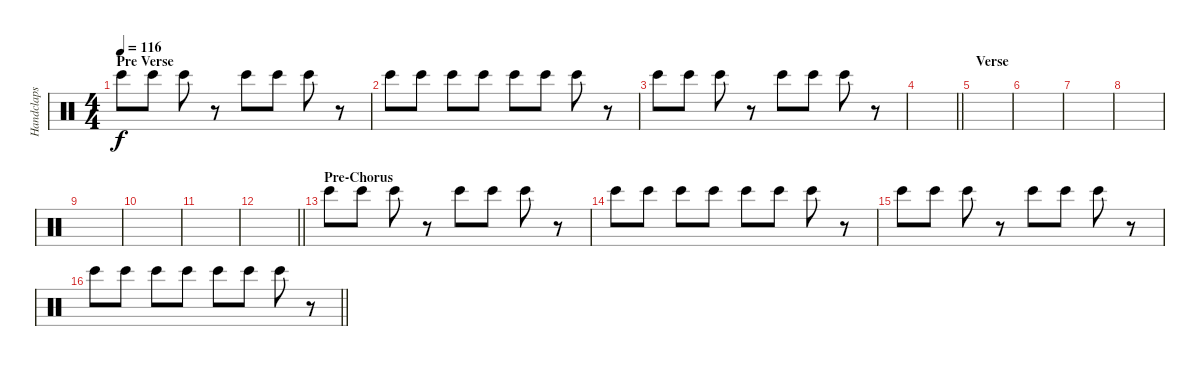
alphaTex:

\track ("Handclaps" "Handclaps") {instrument percussion}
\staff {score}
\articulation defaults
\ts (4 4)
\section ("" "Pre Verse")
\tempo 116
\clef neutral
\ks c "Bongo High (hit)".8{dy f} "Bongo High (hit)".8 "Bongo High (hit)".8
r.8 "Bongo High (hit)".8 "Bongo High (hit)".8 "Bongo High (hit)".8 r.8 |
"Bongo High (hit)".8 "Bongo High (hit)".8 "Bongo High (hit)".8 "Bongo High (hit)".8 "Bongo High (hit)".8 "Bongo High (hit)".8 "Bongo High (hit)".8 r.8 |
"Bongo High (hit)".8 "Bongo High (hit)".8 "Bongo High (hit)".8 r.8 "Bongo High (hit)".8 "Bongo High (hit)".8 "Bongo High (hit)".8 r.8 |
\barLineRight lightlight
|
\section ("" "Verse")
|
|
|
|
|
|
|
\barLineRight lightlight
|
\section ("" "Pre-Chorus")
"Bongo High (hit)".8 "Bongo High (hit)".8 "Bongo High (hit)".8 r.8 "Bongo High (hit)".8 "Bongo High (hit)".8 "Bongo High (hit)".8 r.8 |
"Bongo High (hit)".8 "Bongo High (hit)".8 "Bongo High (hit)".8 "Bongo High (hit)".8 "Bongo High (hit)".8 "Bongo High (hit)".8 "Bongo High (hit)".8 r.8 |
"Bongo High (hit)".8 "Bongo High (hit)".8 "Bongo High (hit)".8 r.8 "Bongo High (hit)".8 "Bongo High (hit)".8 "Bongo High (hit)".8 r.8 |
\barLineRight lightlight "Bongo High (hit)".8 "Bongo High (hit)".8 "Bongo High (hit)".8 "Bongo High (hit)".8 "Bongo High (hit)".8 "Bongo High (hit)".8 "Bongo High (hit)".8
r.8
